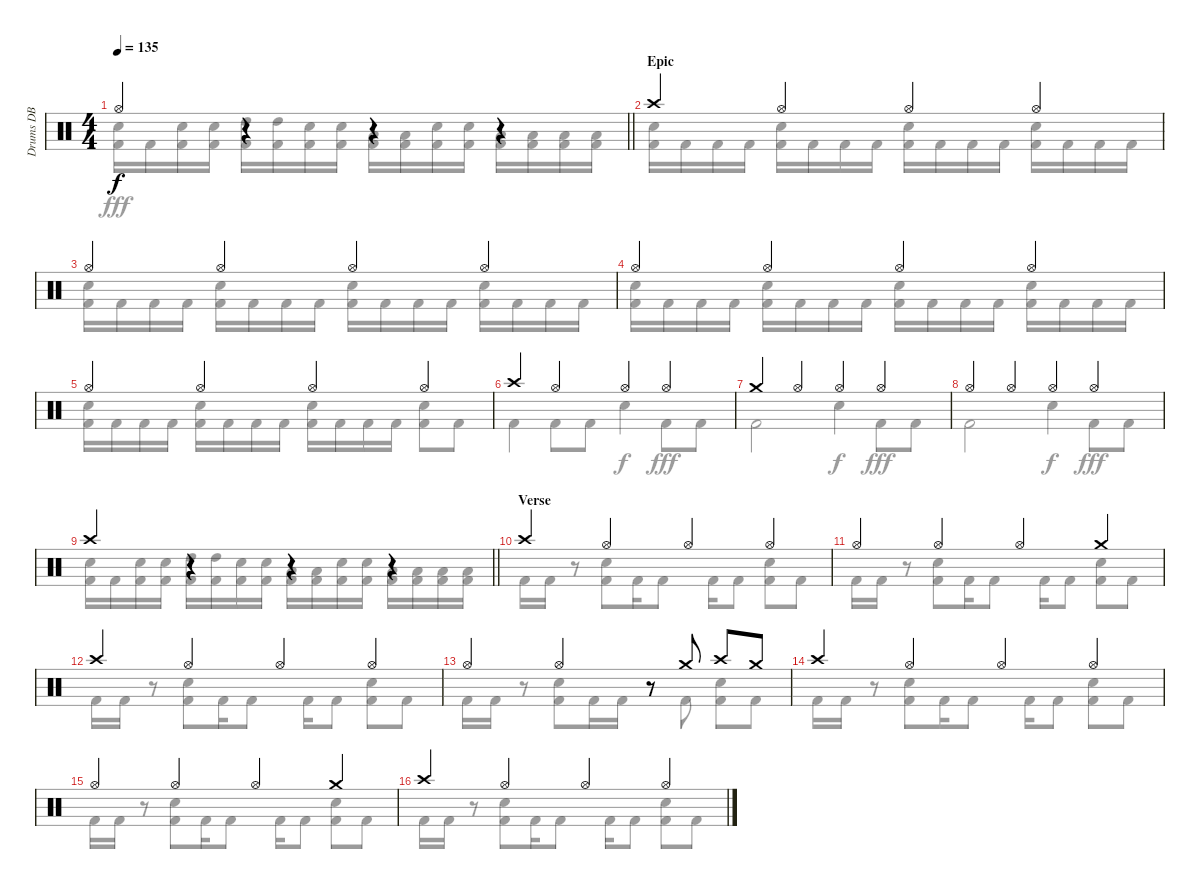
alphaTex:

\track ("Drums DB" "Drums DB") {instrument percussion}
\staff {score}
\articulation defaults
\voice
\ts (4 4)
\tempo 135
\clef neutral
\barLineRight lightlight
\ks aminor "Hi-Hat (open)".4{dy f}
r.4 r.4 r.4 |
\section ("" "Epic")
"Crash high (hit)".4 "Hi-Hat (open)".4 "Hi-Hat (open)".4 "Hi-Hat (open)".4 |
"Hi-Hat (open)".4 "Hi-Hat (open)".4 "Hi-Hat (open)".4 "Hi-Hat (open)".4 |
"Hi-Hat (open)".4 "Hi-Hat (open)".4 "Hi-Hat (open)".4 "Hi-Hat (open)".4 |
"Hi-Hat (open)".4 "Hi-Hat (open)".4 "Hi-Hat (open)".4 "Hi-Hat (open)".4 |
"Crash high (hit)".4 "Hi-Hat (open)".4 "Hi-Hat (open)".4 "Hi-Hat (open)".4 |
"Crash medium (hit)".4 "Hi-Hat (open)".4 "Hi-Hat (open)".4 "Hi-Hat (open)".4 |
"Hi-Hat (open)".4 "Hi-Hat (open)".4 "Hi-Hat (open)".4 "Hi-Hat (open)".4 |
\barLineRight lightlight "Crash high (hit)".4
r.4 r.4 r.4 |
\section ("" "Verse")
"Crash high (hit)".4 "Hi-Hat (open)".4 "Hi-Hat (open)".4 "Hi-Hat (open)".4 |
"Hi-Hat (open)".4 "Hi-Hat (open)".4 "Hi-Hat (open)".4 "Crash medium (hit)".4 |
"Crash high (hit)".4 "Hi-Hat (open)".4 "Hi-Hat (open)".4 "Hi-Hat (open)".4 |
"Hi-Hat (open)".4 "Hi-Hat (open)".4 r.8 "Crash medium (hit)".8 "Crash high (hit)".8 "Crash medium (hit)".8 |
"Crash high (hit)".4 "Hi-Hat (open)".4 "Hi-Hat (open)".4 "Hi-Hat (open)".4 |
"Hi-Hat (open)".4 "Hi-Hat (open)".4 "Hi-Hat (open)".4 "Crash medium (hit)".4 |
"Crash high (hit)".4 "Hi-Hat (open)".4 "Hi-Hat (open)".4 "Hi-Hat (open)".4
\voice
\clef neutral
\ottava regular
\simile none
\barLineRight lightlight
\ks aminor
("Snare (hit) 2" "Kick (hit) 2").16{dy fff} "Kick (hit) 2".16 ("Snare (hit) 2" "Kick (hit) 2").16 ("Snare (hit) 2" "Kick (hit) 2").16 ("High Tom (hit)" "Kick (hit) 2").16 ("High Tom (hit)" "Kick (hit) 2").16 ("Snare (hit) 2" "Kick (hit) 2").16 ("Snare (hit) 2" "Kick (hit) 2").16 ("Low Tom (hit)" "Kick (hit) 2").16 ("Low Tom (hit)" "Kick (hit) 2").16 ("Snare (hit) 2" "Kick (hit) 2").16 ("Snare (hit) 2" "Kick (hit) 2").16 ("Low Floor Tom (hit)" "Kick (hit) 2").16 ("Low Floor Tom (hit)" "Kick (hit) 2").16 ("Low Floor Tom (hit)" "Kick (hit) 2").16 ("Low Floor Tom (hit)" "Kick (hit) 2").16 |
("Snare (hit) 2" "Kick (hit) 2").16 "Kick (hit) 2".16 "Kick (hit) 2".16 "Kick (hit) 2".16 ("Snare (hit) 2" "Kick (hit) 2").16 "Kick (hit) 2".16 "Kick (hit) 2".16 "Kick (hit) 2".16 ("Snare (hit) 2" "Kick (hit) 2").16 "Kick (hit) 2".16 "Kick (hit) 2".16 "Kick (hit) 2".16 ("Snare (hit) 2" "Kick (hit) 2").16 "Kick (hit) 2".16 "Kick (hit) 2".16 "Kick (hit) 2".16 |
("Snare (hit) 2" "Kick (hit) 2").16 "Kick (hit) 2".16 "Kick (hit) 2".16 "Kick (hit) 2".16 ("Snare (hit) 2" "Kick (hit) 2").16 "Kick (hit) 2".16 "Kick (hit) 2".16 "Kick (hit) 2".16 ("Snare (hit) 2" "Kick (hit) 2").16 "Kick (hit) 2".16 "Kick (hit) 2".16 "Kick (hit) 2".16 ("Snare (hit) 2" "Kick (hit) 2").16 "Kick (hit) 2".16 "Kick (hit) 2".16 "Kick (hit) 2".16 |
("Snare (hit) 2" "Kick (hit) 2").16 "Kick (hit) 2".16 "Kick (hit) 2".16 "Kick (hit) 2".16 ("Snare (hit) 2" "Kick (hit) 2").16 "Kick (hit) 2".16 "Kick (hit) 2".16 "Kick (hit) 2".16 ("Snare (hit) 2" "Kick (hit) 2").16 "Kick (hit) 2".16 "Kick (hit) 2".16 "Kick (hit) 2".16 ("Snare (hit) 2" "Kick (hit) 2").16 "Kick (hit) 2".16 "Kick (hit) 2".16 "Kick (hit) 2".16 |
("Snare (hit) 2" "Kick (hit) 2").16 "Kick (hit) 2".16 "Kick (hit) 2".16 "Kick (hit) 2".16 ("Snare (hit) 2" "Kick (hit) 2").16 "Kick (hit) 2".16 "Kick (hit) 2".16 "Kick (hit) 2".16 ("Snare (hit) 2" "Kick (hit) 2").16 "Kick (hit) 2".16 "Kick (hit) 2".16 "Kick (hit) 2".16 ("Snare (hit) 2" "Kick (hit) 2").8 "Kick (hit) 2".8 |
"Kick (hit) 2".4 "Kick (hit) 2".8 "Kick (hit) 2".8 "Snare (hit) 2".4{dy f} "Kick (hit) 2".8{dy fff} "Kick (hit) 2".8 |
"Kick (hit) 2".2 "Snare (hit) 2".4{dy f} "Kick (hit) 2".8{dy fff} "Kick (hit) 2".8 |
"Kick (hit) 2".2 "Snare (hit) 2".4{dy f} "Kick (hit) 2".8{dy fff} "Kick (hit) 2".8 |
\barLineRight lightlight
("Snare (hit) 2" "Kick (hit) 2").16 "Kick (hit) 2".16 ("Snare (hit) 2" "Kick (hit) 2").16 ("Snare (hit) 2" "Kick (hit) 2").16 ("High Tom (hit)" "Kick (hit) 2").16 ("High Tom (hit)" "Kick (hit) 2").16 ("Snare (hit) 2" "Kick (hit) 2").16 ("Snare (hit) 2" "Kick (hit) 2").16 ("Low Tom (hit)" "Kick (hit) 2").16 ("Low Tom (hit)" "Kick (hit) 2").16 ("Snare (hit) 2" "Kick (hit) 2").16 ("Snare (hit) 2" "Kick (hit) 2").16 ("Low Floor Tom (hit)" "Kick (hit) 2").16 ("Low Floor Tom (hit)" "Kick (hit) 2").16 ("Low Floor Tom (hit)" "Kick (hit) 2").16 ("Low Floor Tom (hit)" "Kick (hit) 2").16 |
"Kick (hit) 2".16 "Kick (hit) 2".16 r.8 ("Snare (hit) 2" "Kick (hit) 2").8 "Kick (hit) 2".16 "Kick (hit) 2".8 "Kick (hit) 2".16 "Kick (hit) 2".8 ("Snare (hit) 2" "Kick (hit) 2").8 "Kick (hit) 2".8 |
"Kick (hit) 2".16 "Kick (hit) 2".16 r.8 ("Snare (hit) 2" "Kick (hit) 2").8 "Kick (hit) 2".16 "Kick (hit) 2".8 "Kick (hit) 2".16 "Kick (hit) 2".8 ("Snare (hit) 2" "Kick (hit) 2").8 "Kick (hit) 2".8 |
"Kick (hit) 2".16 "Kick (hit) 2".16 r.8 ("Snare (hit) 2" "Kick (hit) 2").8 "Kick (hit) 2".16 "Kick (hit) 2".8 "Kick (hit) 2".16 "Kick (hit) 2".8 ("Snare (hit) 2" "Kick (hit) 2").8 "Kick (hit) 2".8 |
"Kick (hit) 2".16 "Kick (hit) 2".16 r.8 ("Snare (hit) 2" "Kick (hit) 2").8 "Kick (hit) 2".16 "Kick (hit) 2".16 r.8 "Kick (hit) 2".8 ("Snare (hit) 2" "Kick (hit) 2").8 "Kick (hit) 2".8 |
"Kick (hit) 2".16 "Kick (hit) 2".16 r.8 ("Snare (hit) 2" "Kick (hit) 2").8 "Kick (hit) 2".16 "Kick (hit) 2".8 "Kick (hit) 2".16 "Kick (hit) 2".8 ("Snare (hit) 2" "Kick (hit) 2").8 "Kick (hit) 2".8 |
"Kick (hit) 2".16 "Kick (hit) 2".16 r.8 ("Snare (hit) 2" "Kick (hit) 2").8 "Kick (hit) 2".16 "Kick (hit) 2".8 "Kick (hit) 2".16 "Kick (hit) 2".8 ("Snare (hit) 2" "Kick (hit) 2").8 "Kick (hit) 2".8 |
"Kick (hit) 2".16 "Kick (hit) 2".16 r.8 ("Snare (hit) 2" "Kick (hit) 2").8 "Kick (hit) 2".16 "Kick (hit) 2".8 "Kick (hit) 2".16 "Kick (hit) 2".8 ("Snare (hit) 2" "Kick (hit) 2").8 "Kick (hit) 2".8
